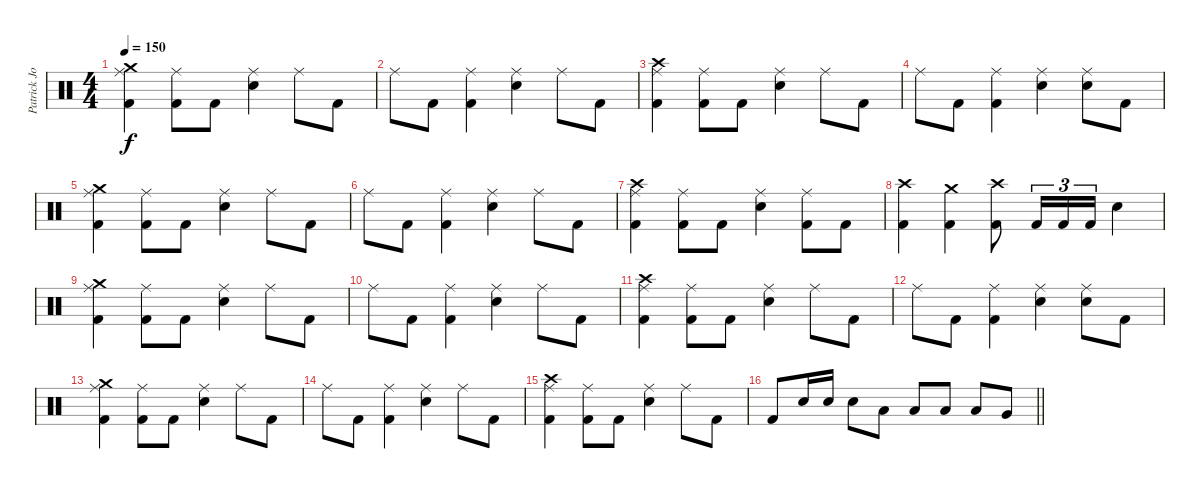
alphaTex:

\track ("Patrick Johansson" "Patrick Jo") {instrument percussion}
\staff {score}
\articulation defaults
\ts (4 4)
\tempo 150
\clef neutral
\ks c
("Crash medium (hit)" "Ride (middle)" "Kick (hit) 2").4{dy f} ("Ride (middle)" "Kick (hit) 2").8 "Kick (hit) 2".8 ("Ride (middle)" "Snare (hit) 2").4 "Ride (middle)".8 "Kick (hit) 2".8 |
"Ride (middle)".8 "Kick (hit) 2".8 ("Ride (middle)" "Kick (hit) 2").4 ("Ride (middle)" "Snare (hit) 2").4 "Ride (middle)".8 "Kick (hit) 2".8 |
("Crash high (hit)" "Ride (middle)" "Kick (hit) 2").4 ("Ride (middle)" "Kick (hit) 2").8 "Kick (hit) 2".8 ("Ride (middle)" "Snare (hit) 2").4 "Ride (middle)".8 "Kick (hit) 2".8 |
"Ride (middle)".8 "Kick (hit) 2".8 ("Ride (middle)" "Kick (hit) 2").4 ("Ride (middle)" "Snare (hit) 2").4 ("Ride (middle)" "Snare (hit) 2").8 "Kick (hit) 2".8 |
("Crash medium (hit)" "Ride (middle)" "Kick (hit) 2").4 ("Ride (middle)" "Kick (hit) 2").8 "Kick (hit) 2".8 ("Ride (middle)" "Snare (hit) 2").4 "Ride (middle)".8 "Kick (hit) 2".8 |
"Ride (middle)".8 "Kick (hit) 2".8 ("Ride (middle)" "Kick (hit) 2").4 ("Ride (middle)" "Snare (hit) 2").4 "Ride (middle)".8 "Kick (hit) 2".8 |
("Crash high (hit)" "Ride (middle)" "Kick (hit) 2").4 ("Ride (middle)" "Kick (hit) 2").8 "Kick (hit) 2".8 ("Ride (middle)" "Snare (hit) 2").4 ("Ride (middle)" "Kick (hit) 2").8 "Kick (hit) 2".8 |
("Crash high (hit)" "Kick (hit) 2").4 ("Crash medium (hit)" "Kick (hit) 2").4 ("Crash high (hit)" "Kick (hit) 2").8 "Kick (hit) 2".16{tu (3 2)} "Kick (hit) 2".16{tu (3 2)} "Kick (hit) 2".16{tu (3 2)} "Snare (hit) 2".4 |
("Crash medium (hit)" "Ride (middle)" "Kick (hit) 2").4 ("Ride (middle)" "Kick (hit) 2").8 "Kick (hit) 2".8 ("Ride (middle)" "Snare (hit) 2").4 "Ride (middle)".8 "Kick (hit) 2".8 |
"Ride (middle)".8 "Kick (hit) 2".8 ("Ride (middle)" "Kick (hit) 2").4 ("Ride (middle)" "Snare (hit) 2").4 "Ride (middle)".8 "Kick (hit) 2".8 |
("Crash high (hit)" "Ride (middle)" "Kick (hit) 2").4 ("Ride (middle)" "Kick (hit) 2").8 "Kick (hit) 2".8 ("Ride (middle)" "Snare (hit) 2").4 "Ride (middle)".8 "Kick (hit) 2".8 |
"Ride (middle)".8 "Kick (hit) 2".8 ("Ride (middle)" "Kick (hit) 2").4 ("Ride (middle)" "Snare (hit) 2").4 ("Ride (middle)" "Snare (hit) 2").8 "Kick (hit) 2".8 |
("Crash medium (hit)" "Ride (middle)" "Kick (hit) 2").4 ("Ride (middle)" "Kick (hit) 2").8 "Kick (hit) 2".8 ("Ride (middle)" "Snare (hit) 2").4 "Ride (middle)".8 "Kick (hit) 2".8 |
"Ride (middle)".8 "Kick (hit) 2".8 ("Ride (middle)" "Kick (hit) 2").4 ("Ride (middle)" "Snare (hit) 2").4 "Ride (middle)".8 "Kick (hit) 2".8 |
("Crash high (hit)" "Ride (middle)" "Kick (hit) 2").4 ("Ride (middle)" "Kick (hit) 2").8 "Kick (hit) 2".8 ("Ride (middle)" "Snare (hit) 2").4 "Ride (middle)".8 "Kick (hit) 2".8 |
\barLineRight lightlight "Kick (hit) 2".8 "Snare (hit) 2".16 "Snare (hit) 2".16 "Snare (hit) 2".8 "Low Tom (hit)".8 "Low Tom (hit)".8 "Low Floor Tom (hit)".8 "Low Floor Tom (hit)".8 "Very Low Tom (hit)".8
